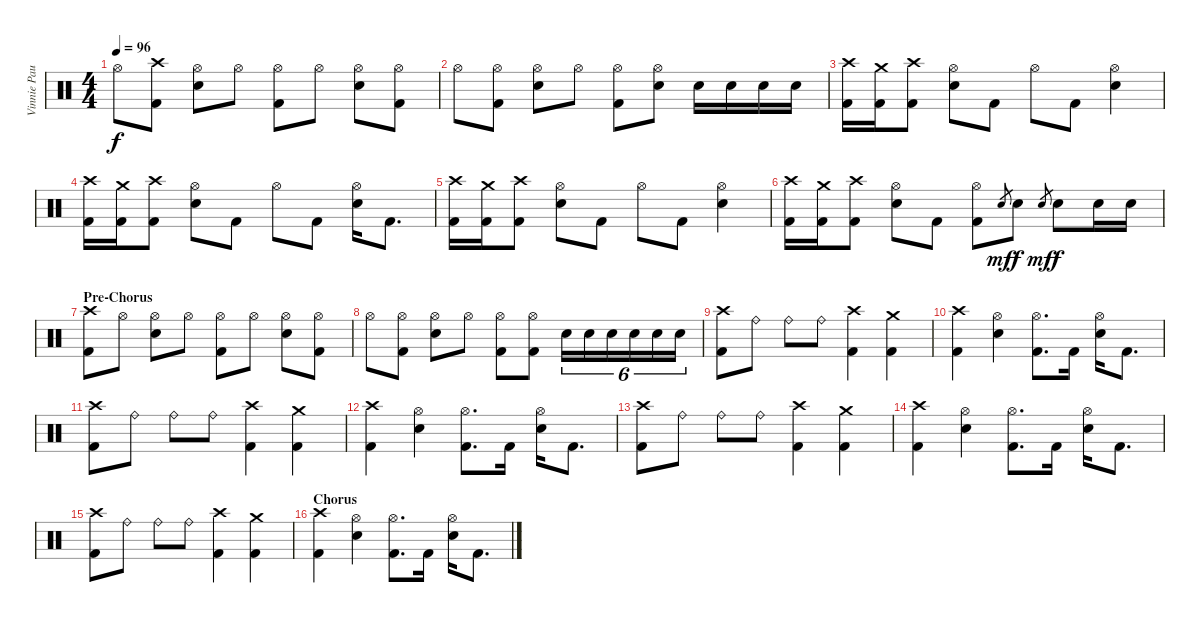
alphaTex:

\track ("Vinnie Paul" "Vinnie Pau") {instrument percussion}
\staff {score}
\articulation defaults
\ts (4 4)
\tempo 96
\clef neutral
\ks c "Hi-Hat (open)".8{dy f}
("Crash high (hit)" "Kick (hit) 2").8 ("Snare (hit) 2" "Hi-Hat (open)").8 "Hi-Hat (open)".8 ("Kick (hit) 2" "Hi-Hat (open)").8 "Hi-Hat (open)".8 ("Snare (hit) 2" "Hi-Hat (open)").8 ("Kick (hit) 2" "Hi-Hat (open)").8 |
"Hi-Hat (open)".8 ("Kick (hit) 2" "Hi-Hat (open)").8 ("Snare (hit) 2" "Hi-Hat (open)").8 "Hi-Hat (open)".8 ("Kick (hit) 2" "Hi-Hat (open)").8 ("Snare (hit) 2" "Hi-Hat (open)").8 "Snare (hit) 2".16 "Snare (hit) 2".16 "Snare (hit) 2".16 "Snare (hit) 2".16 |
("Crash high (hit)" "Kick (hit) 2").16 ("Crash medium (hit)" "Kick (hit) 2").16 ("Crash high (hit)" "Kick (hit) 2").8 ("Snare (hit) 2" "Hi-Hat (open)").8 "Kick (hit) 2".8 "Hi-Hat (open)".8 "Kick (hit) 2".8 ("Snare (hit) 2" "Hi-Hat (open)").4 |
("Crash high (hit)" "Kick (hit) 2").16 ("Crash medium (hit)" "Kick (hit) 2").16 ("Crash high (hit)" "Kick (hit) 2").8 ("Snare (hit) 2" "Hi-Hat (open)").8 "Kick (hit) 2".8 "Hi-Hat (open)".8 "Kick (hit) 2".8 ("Snare (hit) 2" "Hi-Hat (open)").16 "Kick (hit) 2".8{d} |
("Crash high (hit)" "Kick (hit) 2").16 ("Crash medium (hit)" "Kick (hit) 2").16 ("Crash high (hit)" "Kick (hit) 2").8 ("Snare (hit) 2" "Hi-Hat (open)").8 "Kick (hit) 2".8 "Hi-Hat (open)".8 "Kick (hit) 2".8 ("Snare (hit) 2" "Hi-Hat (open)").4 |
("Crash high (hit)" "Kick (hit) 2").16 ("Crash medium (hit)" "Kick (hit) 2").16 ("Crash high (hit)" "Kick (hit) 2").8 ("Snare (hit) 2" "Hi-Hat (open)").8 "Kick (hit) 2".8 ("Kick (hit) 2" "Hi-Hat (open)").8 "Snare (hit)".8{gr dy mf} "Snare (hit) 2".8{dy f} "Snare (hit)".8{gr dy mf} "Snare (hit) 2".8{dy f} "Snare (hit) 2".16 "Snare (hit) 2".16 |
\section ("" "Pre-Chorus")
("Crash high (hit)" "Kick (hit) 2").8 "Hi-Hat (open)".8 ("Snare (hit) 2" "Hi-Hat (open)").8 "Hi-Hat (open)".8 ("Kick (hit) 2" "Hi-Hat (open)").8 "Hi-Hat (open)".8 ("Snare (hit) 2" "Hi-Hat (open)").8 ("Kick (hit) 2" "Hi-Hat (open)").8 |
"Hi-Hat (open)".8 ("Kick (hit) 2" "Hi-Hat (open)").8 ("Snare (hit) 2" "Hi-Hat (open)").8 "Hi-Hat (open)".8 ("Kick (hit) 2" "Hi-Hat (open)").8 ("Kick (hit) 2" "Hi-Hat (open)").8 "Snare (hit) 2".16{tu (6 4)} "Snare (hit) 2".16{tu (6 4)} "Snare (hit) 2".16{tu (6 4)} "Snare (hit) 2".16{tu (6 4)} "Snare (hit) 2".16{tu (6 4)} "Snare (hit) 2".16{tu (6 4)} |
("Crash high (hit)" "Kick (hit) 2").8 "Ride (bell)".8 "Ride (bell)".8 "Ride (bell)".8 ("Crash high (hit)" "Kick (hit) 2").4 ("Crash medium (hit)" "Kick (hit) 2").4 |
("Crash high (hit)" "Kick (hit) 2").4 ("Snare (hit) 2" "Hi-Hat (open)").4 ("Kick (hit) 2" "Hi-Hat (open)").8{d} "Kick (hit) 2".16 ("Snare (hit) 2" "Hi-Hat (open)").16 "Kick (hit) 2".8{d} |
("Crash high (hit)" "Kick (hit) 2").8 "Ride (bell)".8 "Ride (bell)".8 "Ride (bell)".8 ("Crash high (hit)" "Kick (hit) 2").4 ("Crash medium (hit)" "Kick (hit) 2").4 |
("Crash high (hit)" "Kick (hit) 2").4 ("Snare (hit) 2" "Hi-Hat (open)").4 ("Kick (hit) 2" "Hi-Hat (open)").8{d} "Kick (hit) 2".16 ("Snare (hit) 2" "Hi-Hat (open)").16 "Kick (hit) 2".8{d} |
("Crash high (hit)" "Kick (hit) 2").8 "Ride (bell)".8 "Ride (bell)".8 "Ride (bell)".8 ("Crash high (hit)" "Kick (hit) 2").4 ("Crash medium (hit)" "Kick (hit) 2").4 |
("Crash high (hit)" "Kick (hit) 2").4 ("Snare (hit) 2" "Hi-Hat (open)").4 ("Kick (hit) 2" "Hi-Hat (open)").8{d} "Kick (hit) 2".16 ("Snare (hit) 2" "Hi-Hat (open)").16 "Kick (hit) 2".8{d} |
("Crash high (hit)" "Kick (hit) 2").8 "Ride (bell)".8 "Ride (bell)".8 "Ride (bell)".8 ("Crash high (hit)" "Kick (hit) 2").4 ("Crash medium (hit)" "Kick (hit) 2").4 |
\section ("" "Chorus")
("Crash high (hit)" "Kick (hit) 2").4 ("Snare (hit) 2" "Hi-Hat (open)").4 ("Kick (hit) 2" "Hi-Hat (open)").8{d} "Kick (hit) 2".16 ("Snare (hit) 2" "Hi-Hat (open)").16 "Kick (hit) 2".8{d}
